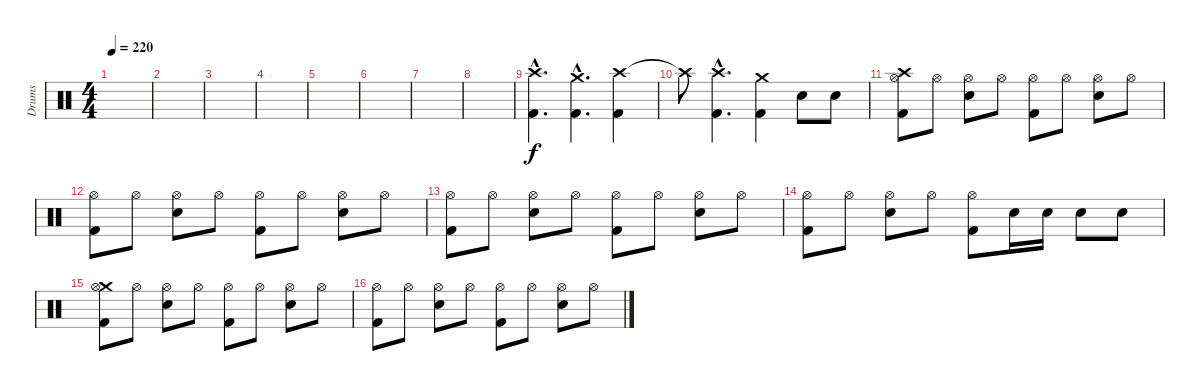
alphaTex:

\track ("Drums" "Drums") {instrument percussion}
\staff {score}
\articulation defaults
\ts (4 4)
\tempo 220
\clef neutral
\ks c
|
|
|
|
|
|
|
|
("Crash high (hit)"{hac} "Kick (hit) 2"{hac}).4{d} ("Crash medium (hit)"{hac} "Kick (hit) 2"{hac}).4{d} ("Crash high (hit)" "Kick (hit) 2").4 |
"Crash high (hit)"{t}.8 ("Crash high (hit)"{hac} "Kick (hit) 2"{hac}).4{d} ("Crash medium (hit)" "Kick (hit) 2").4 "Electric Snare (hit)".8 "Electric Snare (hit)".8 |
("Crash high (hit)" "Hi-Hat (open)" "Kick (hit) 2").8 "Hi-Hat (open)".8 ("Hi-Hat (open)" "Electric Snare (hit)").8 "Hi-Hat (open)".8 ("Hi-Hat (open)" "Kick (hit) 2").8 "Hi-Hat (open)".8 ("Hi-Hat (open)" "Electric Snare (hit)").8 "Hi-Hat (open)".8 |
("Hi-Hat (open)" "Kick (hit) 2").8 "Hi-Hat (open)".8 ("Hi-Hat (open)" "Electric Snare (hit)").8 "Hi-Hat (open)".8 ("Hi-Hat (open)" "Kick (hit) 2").8 "Hi-Hat (open)".8 ("Hi-Hat (open)" "Electric Snare (hit)").8 "Hi-Hat (open)".8 |
("Hi-Hat (open)" "Kick (hit) 2").8 "Hi-Hat (open)".8 ("Hi-Hat (open)" "Electric Snare (hit)").8 "Hi-Hat (open)".8 ("Hi-Hat (open)" "Kick (hit) 2").8 "Hi-Hat (open)".8 ("Hi-Hat (open)" "Electric Snare (hit)").8 "Hi-Hat (open)".8 |
("Hi-Hat (open)" "Kick (hit) 2").8 "Hi-Hat (open)".8 ("Hi-Hat (open)" "Electric Snare (hit)").8 "Hi-Hat (open)".8 ("Hi-Hat (open)" "Kick (hit) 2").8 "Electric Snare (hit)".16 "Electric Snare (hit)".16 "Electric Snare (hit)".8 "Electric Snare (hit)".8 |
("Crash medium (hit)" "Hi-Hat (open)" "Kick (hit) 2").8 "Hi-Hat (open)".8 ("Hi-Hat (open)" "Electric Snare (hit)").8 "Hi-Hat (open)".8 ("Hi-Hat (open)" "Kick (hit) 2").8 "Hi-Hat (open)".8 ("Hi-Hat (open)" "Electric Snare (hit)").8 "Hi-Hat (open)".8 |
("Hi-Hat (open)" "Kick (hit) 2").8 "Hi-Hat (open)".8 ("Hi-Hat (open)" "Electric Snare (hit)").8 "Hi-Hat (open)".8 ("Hi-Hat (open)" "Kick (hit) 2").8 "Hi-Hat (open)".8 ("Hi-Hat (open)" "Electric Snare (hit)").8 "Hi-Hat (open)".8
